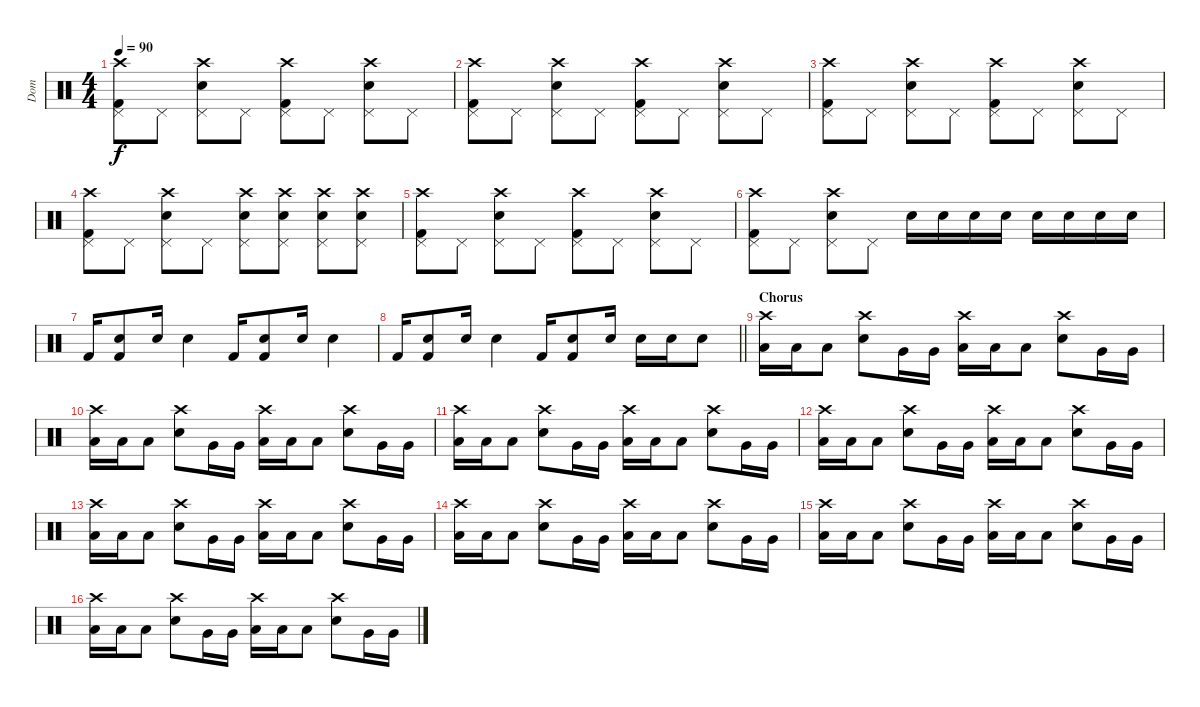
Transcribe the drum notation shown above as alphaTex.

\track ("Dom" "Dom") {instrument percussion}
\staff {score}
\articulation defaults
\ts (4 4)
\tempo 90
\clef neutral
\ks c
("Crash high (hit)" "Pedal Hi-Hat (hit)" "Kick (hit) 2").8{dy f} "Pedal Hi-Hat (hit)".8 ("Crash high (hit)" "Pedal Hi-Hat (hit)" "Electric Snare (hit)").8 "Pedal Hi-Hat (hit)".8 ("Crash high (hit)" "Pedal Hi-Hat (hit)" "Kick (hit) 2").8 "Pedal Hi-Hat (hit)".8 ("Crash high (hit)" "Pedal Hi-Hat (hit)" "Electric Snare (hit)").8 "Pedal Hi-Hat (hit)".8 |
("Crash high (hit)" "Pedal Hi-Hat (hit)" "Kick (hit) 2").8 "Pedal Hi-Hat (hit)".8 ("Crash high (hit)" "Pedal Hi-Hat (hit)" "Electric Snare (hit)").8 "Pedal Hi-Hat (hit)".8 ("Crash high (hit)" "Pedal Hi-Hat (hit)" "Kick (hit) 2").8 "Pedal Hi-Hat (hit)".8 ("Crash high (hit)" "Pedal Hi-Hat (hit)" "Electric Snare (hit)").8 "Pedal Hi-Hat (hit)".8 |
("Crash high (hit)" "Pedal Hi-Hat (hit)" "Kick (hit) 2").8 "Pedal Hi-Hat (hit)".8 ("Crash high (hit)" "Pedal Hi-Hat (hit)" "Electric Snare (hit)").8 "Pedal Hi-Hat (hit)".8 ("Crash high (hit)" "Pedal Hi-Hat (hit)" "Kick (hit) 2").8 "Pedal Hi-Hat (hit)".8 ("Crash high (hit)" "Pedal Hi-Hat (hit)" "Electric Snare (hit)").8 "Pedal Hi-Hat (hit)".8 |
("Crash high (hit)" "Pedal Hi-Hat (hit)" "Kick (hit) 2").8 "Pedal Hi-Hat (hit)".8 ("Crash high (hit)" "Pedal Hi-Hat (hit)" "Electric Snare (hit)").8 "Pedal Hi-Hat (hit)".8 ("Crash high (hit)" "Pedal Hi-Hat (hit)" "Electric Snare (hit)").8 ("Crash high (hit)" "Pedal Hi-Hat (hit)" "Electric Snare (hit)").8 ("Crash high (hit)" "Pedal Hi-Hat (hit)" "Electric Snare (hit)").8 ("Crash high (hit)" "Pedal Hi-Hat (hit)" "Electric Snare (hit)").8 |
("Crash high (hit)" "Pedal Hi-Hat (hit)" "Kick (hit) 2").8 "Pedal Hi-Hat (hit)".8 ("Crash high (hit)" "Pedal Hi-Hat (hit)" "Electric Snare (hit)").8 "Pedal Hi-Hat (hit)".8 ("Crash high (hit)" "Pedal Hi-Hat (hit)" "Kick (hit) 2").8 "Pedal Hi-Hat (hit)".8 ("Crash high (hit)" "Pedal Hi-Hat (hit)" "Electric Snare (hit)").8 "Pedal Hi-Hat (hit)".8 |
("Crash high (hit)" "Pedal Hi-Hat (hit)" "Kick (hit) 2").8 "Pedal Hi-Hat (hit)".8 ("Crash high (hit)" "Pedal Hi-Hat (hit)" "Electric Snare (hit)").8 "Pedal Hi-Hat (hit)".8 "Electric Snare (hit)".16 "Electric Snare (hit)".16 "Electric Snare (hit)".16 "Electric Snare (hit)".16 "Snare (hit) 2".16 "Snare (hit) 2".16 "Snare (hit) 2".16 "Snare (hit) 2".16 |
"Kick (hit) 2".16 ("Snare (hit) 2" "Kick (hit) 2").8 "Electric Snare (hit)".16 "Electric Snare (hit)".4 "Kick (hit) 2".16 ("Snare (hit) 2" "Kick (hit) 2").8 "Electric Snare (hit)".16 "Electric Snare (hit)".4 |
\barLineRight lightlight "Kick (hit) 2".16
("Snare (hit) 2" "Kick (hit) 2").8 "Electric Snare (hit)".16 "Electric Snare (hit)".4 "Kick (hit) 2".16 ("Snare (hit) 2" "Kick (hit) 2").8 "Electric Snare (hit)".16 "Electric Snare (hit)".16 "Electric Snare (hit)".16 "Electric Snare (hit)".8 |
\section ("" "Chorus")
("Crash high (hit)" "Low Tom (hit)").16 "Low Tom (hit)".16 "Low Tom (hit)".8 ("Crash high (hit)" "Electric Snare (hit)").8 "Very Low Tom (hit)".16 "Very Low Tom (hit)".16 ("Crash high (hit)" "Low Tom (hit)").16 "Low Tom (hit)".16 "Low Tom (hit)".8 ("Crash high (hit)" "Electric Snare (hit)").8 "Very Low Tom (hit)".16 "Very Low Tom (hit)".16 |
("Crash high (hit)" "Low Tom (hit)").16 "Low Tom (hit)".16 "Low Tom (hit)".8 ("Crash high (hit)" "Electric Snare (hit)").8 "Very Low Tom (hit)".16 "Very Low Tom (hit)".16 ("Crash high (hit)" "Low Tom (hit)").16 "Low Tom (hit)".16 "Low Tom (hit)".8 ("Crash high (hit)" "Electric Snare (hit)").8 "Very Low Tom (hit)".16 "Very Low Tom (hit)".16 |
("Crash high (hit)" "Low Tom (hit)").16 "Low Tom (hit)".16 "Low Tom (hit)".8 ("Crash high (hit)" "Electric Snare (hit)").8 "Very Low Tom (hit)".16 "Very Low Tom (hit)".16 ("Crash high (hit)" "Low Tom (hit)").16 "Low Tom (hit)".16 "Low Tom (hit)".8 ("Crash high (hit)" "Electric Snare (hit)").8 "Very Low Tom (hit)".16 "Very Low Tom (hit)".16 |
("Crash high (hit)" "Low Tom (hit)").16 "Low Tom (hit)".16 "Low Tom (hit)".8 ("Crash high (hit)" "Electric Snare (hit)").8 "Very Low Tom (hit)".16 "Very Low Tom (hit)".16 ("Crash high (hit)" "Low Tom (hit)").16 "Low Tom (hit)".16 "Low Tom (hit)".8 ("Crash high (hit)" "Electric Snare (hit)").8 "Very Low Tom (hit)".16 "Very Low Tom (hit)".16 |
("Crash high (hit)" "Low Tom (hit)").16 "Low Tom (hit)".16 "Low Tom (hit)".8 ("Crash high (hit)" "Electric Snare (hit)").8 "Very Low Tom (hit)".16 "Very Low Tom (hit)".16 ("Crash high (hit)" "Low Tom (hit)").16 "Low Tom (hit)".16 "Low Tom (hit)".8 ("Crash high (hit)" "Electric Snare (hit)").8 "Very Low Tom (hit)".16 "Very Low Tom (hit)".16 |
("Crash high (hit)" "Low Tom (hit)").16 "Low Tom (hit)".16 "Low Tom (hit)".8 ("Crash high (hit)" "Electric Snare (hit)").8 "Very Low Tom (hit)".16 "Very Low Tom (hit)".16 ("Crash high (hit)" "Low Tom (hit)").16 "Low Tom (hit)".16 "Low Tom (hit)".8 ("Crash high (hit)" "Electric Snare (hit)").8 "Very Low Tom (hit)".16 "Very Low Tom (hit)".16 |
("Crash high (hit)" "Low Tom (hit)").16 "Low Tom (hit)".16 "Low Tom (hit)".8 ("Crash high (hit)" "Electric Snare (hit)").8 "Very Low Tom (hit)".16 "Very Low Tom (hit)".16 ("Crash high (hit)" "Low Tom (hit)").16 "Low Tom (hit)".16 "Low Tom (hit)".8 ("Crash high (hit)" "Electric Snare (hit)").8 "Very Low Tom (hit)".16 "Very Low Tom (hit)".16 |
("Crash high (hit)" "Low Tom (hit)").16 "Low Tom (hit)".16 "Low Tom (hit)".8 ("Crash high (hit)" "Electric Snare (hit)").8 "Very Low Tom (hit)".16 "Very Low Tom (hit)".16 ("Crash high (hit)" "Low Tom (hit)").16 "Low Tom (hit)".16 "Low Tom (hit)".8 ("Crash high (hit)" "Electric Snare (hit)").8 "Very Low Tom (hit)".16 "Very Low Tom (hit)".16
